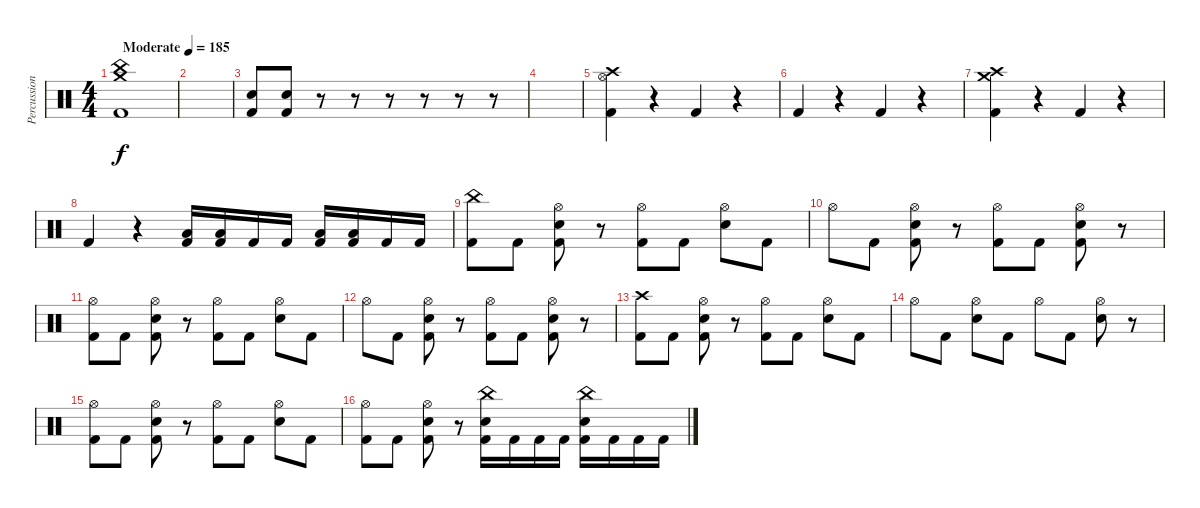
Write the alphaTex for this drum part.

\track ("Percussion" "Percussion") {instrument percussion}
\staff {score}
\articulation defaults
\ts (4 4)
\tempo (185 "Moderate")
\clef neutral
\ks c
("Crash medium (hit)" "China (hit)" "Kick (hit) 2").1{dy f} |
|
("Kick (hit) 2" "Snare (hit) 2").8 ("Kick (hit) 2" "Snare (hit) 2").8 r.8 r.8 r.8 r.8 r.8 r.8 |
|
("Kick (hit) 2" "Hi-Hat (open)" "Crash high (hit)").4 r.4 "Kick (hit) 2".4 r.4 |
"Kick (hit) 2".4 r.4 "Kick (hit) 2".4 r.4 |
("Kick (hit) 2" "Crash high (hit)" "Crash medium (hit)").4 r.4 "Kick (hit) 2".4 r.4 |
"Kick (hit) 2".4 r.4 ("Kick (hit) 2" "Low Floor Tom (hit)").16 ("Kick (hit) 2" "Low Floor Tom (hit)").16 "Kick (hit) 2".16 "Kick (hit) 2".16 ("Kick (hit) 2" "Low Floor Tom (hit)").16 ("Kick (hit) 2" "Low Floor Tom (hit)").16 "Kick (hit) 2".16 "Kick (hit) 2".16 |
("China (hit)" "Kick (hit) 2").8 "Kick (hit) 2".8 ("Snare (hit) 2" "Hi-Hat (open)" "Kick (hit) 2").8 r.8 ("Hi-Hat (open)" "Kick (hit) 2").8 "Kick (hit) 2".8 ("Snare (hit) 2" "Hi-Hat (open)").8 "Kick (hit) 2".8 |
"Hi-Hat (open)".8 "Kick (hit) 2".8 ("Snare (hit) 2" "Hi-Hat (open)" "Kick (hit) 2").8 r.8 ("Hi-Hat (open)" "Kick (hit) 2").8 "Kick (hit) 2".8 ("Snare (hit) 2" "Hi-Hat (open)" "Kick (hit) 2").8 r.8 |
("Hi-Hat (open)" "Kick (hit) 2").8 "Kick (hit) 2".8 ("Snare (hit) 2" "Hi-Hat (open)" "Kick (hit) 2").8 r.8 ("Hi-Hat (open)" "Kick (hit) 2").8 "Kick (hit) 2".8 ("Snare (hit) 2" "Hi-Hat (open)").8 "Kick (hit) 2".8 |
"Hi-Hat (open)".8 "Kick (hit) 2".8 ("Snare (hit) 2" "Hi-Hat (open)" "Kick (hit) 2").8 r.8 ("Hi-Hat (open)" "Kick (hit) 2").8 "Kick (hit) 2".8 ("Snare (hit) 2" "Hi-Hat (open)" "Kick (hit) 2").8 r.8 |
("Crash high (hit)" "Kick (hit) 2").8 "Kick (hit) 2".8 ("Snare (hit) 2" "Hi-Hat (open)" "Kick (hit) 2").8 r.8 ("Hi-Hat (open)" "Kick (hit) 2").8 "Kick (hit) 2".8 ("Snare (hit) 2" "Hi-Hat (open)").8 "Kick (hit) 2".8 |
"Hi-Hat (open)".8 "Kick (hit) 2".8 ("Snare (hit) 2" "Hi-Hat (open)").8 "Kick (hit) 2".8 "Hi-Hat (open)".8 "Kick (hit) 2".8 ("Snare (hit) 2" "Hi-Hat (open)").8 r.8 |
("Hi-Hat (open)" "Kick (hit) 2").8 "Kick (hit) 2".8 ("Snare (hit) 2" "Hi-Hat (open)" "Kick (hit) 2").8 r.8 ("Hi-Hat (open)" "Kick (hit) 2").8 "Kick (hit) 2".8 ("Snare (hit) 2" "Hi-Hat (open)").8 "Kick (hit) 2".8 |
("Hi-Hat (open)" "Kick (hit) 2").8 "Kick (hit) 2".8 ("Snare (hit) 2" "Hi-Hat (open)" "Kick (hit) 2").8 r.8 ("Snare (hit) 2" "China (hit)" "Kick (hit) 2").16 "Kick (hit) 2".16 "Kick (hit) 2".16 "Kick (hit) 2".16 ("Snare (hit) 2" "China (hit)" "Kick (hit) 2").16 "Kick (hit) 2".16 "Kick (hit) 2".16 "Kick (hit) 2".16
